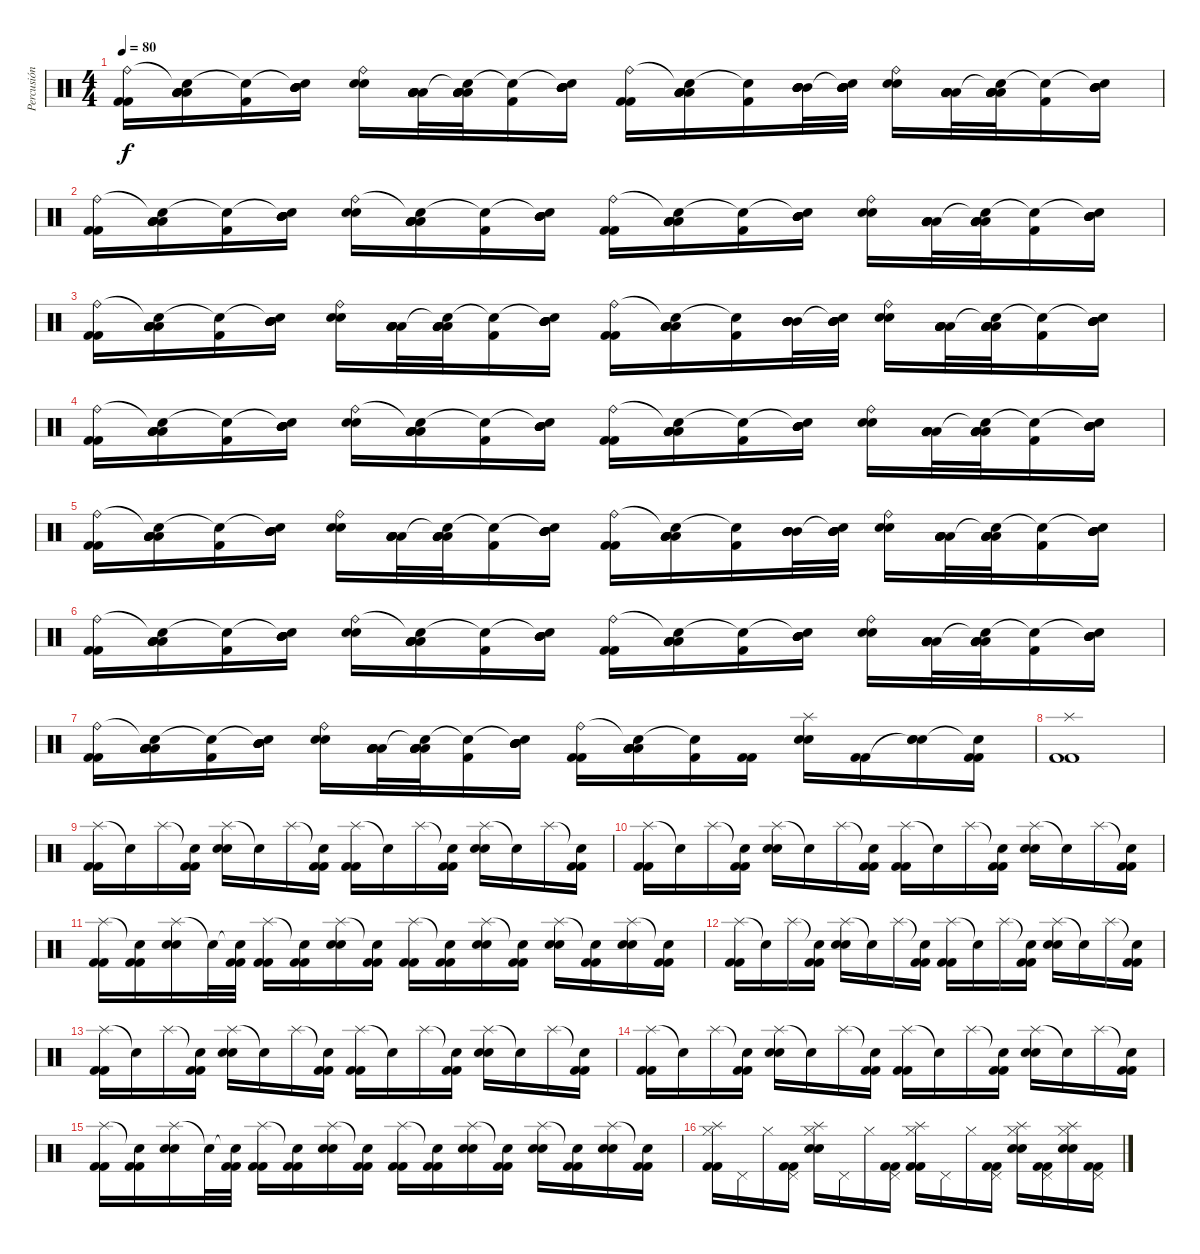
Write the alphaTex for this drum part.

\track ("Percusión" "Percusión") {instrument percussion}
\staff {score}
\articulation defaults
\ts (4 4)
\tempo 80
\clef neutral
\ks c
("Ride (bell)" "Kick (hit) 2" "Kick (hit) 2").16{dy f} ("Snare (hit)"{t} "Low Tom (hit)" "Low Tom (hit)" "Low Tom (hit)" "Low Tom (hit)" "Low Tom (hit)").16 ("Snare (hit)"{t} "Kick (hit) 2").16 ("Snare (hit)"{t} "Mid Tom (hit)" "Mid Tom (hit)" "Mid Tom (hit)" "Mid Tom (hit)" "Mid Tom (hit)").16 ("Ride (bell)" "Electric Snare (hit)" "Electric Snare (hit)").16 ("Low Tom (hit)" "Low Tom (hit)" "Low Tom (hit)" "Low Tom (hit)" "Low Tom (hit)").32 ("Snare (hit)"{t} "Low Tom (hit)" "Low Tom (hit)" "Low Tom (hit)" "Low Tom (hit)" "Low Tom (hit)").32 ("Snare (hit)"{t} "Kick (hit) 2").16 ("Snare (hit)"{t} "Mid Tom (hit)" "Mid Tom (hit)" "Mid Tom (hit)" "Mid Tom (hit)" "Mid Tom (hit)").16 ("Ride (bell)" "Kick (hit) 2" "Kick (hit) 2").16 ("Snare (hit)"{t} "Low Tom (hit)" "Low Tom (hit)" "Low Tom (hit)" "Low Tom (hit)" "Low Tom (hit)").16 ("Snare (hit)"{t} "Kick (hit) 2").16 ("Mid Tom (hit)" "Mid Tom (hit)" "Mid Tom (hit)" "Mid Tom (hit)" "Mid Tom (hit)").32 ("Snare (hit)"{t} "Mid Tom (hit)" "Mid Tom (hit)" "Mid Tom (hit)" "Mid Tom (hit)" "Mid Tom (hit)").32 ("Ride (bell)" "Electric Snare (hit)" "Electric Snare (hit)").16 ("Low Tom (hit)" "Low Tom (hit)" "Low Tom (hit)" "Low Tom (hit)" "Low Tom (hit)").32 ("Snare (hit)"{t} "Low Tom (hit)" "Low Tom (hit)" "Low Tom (hit)" "Low Tom (hit)" "Low Tom (hit)").32 ("Snare (hit)"{t} "Kick (hit) 2").16 ("Snare (hit)"{t} "Mid Tom (hit)" "Mid Tom (hit)" "Mid Tom (hit)" "Mid Tom (hit)" "Mid Tom (hit)").16 |
("Ride (bell)" "Kick (hit) 2" "Kick (hit) 2").16 ("Snare (hit)"{t} "Low Tom (hit)" "Low Tom (hit)" "Low Tom (hit)" "Low Tom (hit)" "Low Tom (hit)").16 ("Snare (hit)"{t} "Kick (hit) 2").16 ("Snare (hit)"{t} "Mid Tom (hit)" "Mid Tom (hit)" "Mid Tom (hit)" "Mid Tom (hit)" "Mid Tom (hit)").16 ("Ride (bell)" "Electric Snare (hit)" "Electric Snare (hit)").16 ("Snare (hit)"{t} "Low Tom (hit)" "Low Tom (hit)" "Low Tom (hit)" "Low Tom (hit)" "Low Tom (hit)").16 ("Snare (hit)"{t} "Kick (hit) 2").16 ("Snare (hit)"{t} "Mid Tom (hit)" "Mid Tom (hit)" "Mid Tom (hit)" "Mid Tom (hit)" "Mid Tom (hit)").16 ("Ride (bell)" "Kick (hit) 2" "Kick (hit) 2").16 ("Snare (hit)"{t} "Low Tom (hit)" "Low Tom (hit)" "Low Tom (hit)" "Low Tom (hit)" "Low Tom (hit)").16 ("Snare (hit)"{t} "Kick (hit) 2").16 ("Snare (hit)"{t} "Mid Tom (hit)" "Mid Tom (hit)" "Mid Tom (hit)" "Mid Tom (hit)" "Mid Tom (hit)").16 ("Ride (bell)" "Electric Snare (hit)" "Electric Snare (hit)").16 ("Low Tom (hit)" "Low Tom (hit)" "Low Tom (hit)" "Low Tom (hit)" "Low Tom (hit)").32 ("Snare (hit)"{t} "Low Tom (hit)" "Low Tom (hit)" "Low Tom (hit)" "Low Tom (hit)" "Low Tom (hit)").32 ("Snare (hit)"{t} "Kick (hit) 2").16 ("Snare (hit)"{t} "Mid Tom (hit)" "Mid Tom (hit)" "Mid Tom (hit)" "Mid Tom (hit)" "Mid Tom (hit)").16 |
("Ride (bell)" "Kick (hit) 2" "Kick (hit) 2").16 ("Snare (hit)"{t} "Low Tom (hit)" "Low Tom (hit)" "Low Tom (hit)" "Low Tom (hit)" "Low Tom (hit)").16 ("Snare (hit)"{t} "Kick (hit) 2").16 ("Snare (hit)"{t} "Mid Tom (hit)" "Mid Tom (hit)" "Mid Tom (hit)" "Mid Tom (hit)" "Mid Tom (hit)").16 ("Ride (bell)" "Electric Snare (hit)" "Electric Snare (hit)").16 ("Low Tom (hit)" "Low Tom (hit)" "Low Tom (hit)" "Low Tom (hit)" "Low Tom (hit)").32 ("Snare (hit)"{t} "Low Tom (hit)" "Low Tom (hit)" "Low Tom (hit)" "Low Tom (hit)" "Low Tom (hit)").32 ("Snare (hit)"{t} "Kick (hit) 2").16 ("Snare (hit)"{t} "Mid Tom (hit)" "Mid Tom (hit)" "Mid Tom (hit)" "Mid Tom (hit)" "Mid Tom (hit)").16 ("Ride (bell)" "Kick (hit) 2" "Kick (hit) 2").16 ("Snare (hit)"{t} "Low Tom (hit)" "Low Tom (hit)" "Low Tom (hit)" "Low Tom (hit)" "Low Tom (hit)").16 ("Snare (hit)"{t} "Kick (hit) 2").16 ("Mid Tom (hit)" "Mid Tom (hit)" "Mid Tom (hit)" "Mid Tom (hit)" "Mid Tom (hit)").32 ("Snare (hit)"{t} "Mid Tom (hit)" "Mid Tom (hit)" "Mid Tom (hit)" "Mid Tom (hit)" "Mid Tom (hit)").32 ("Ride (bell)" "Electric Snare (hit)" "Electric Snare (hit)").16 ("Low Tom (hit)" "Low Tom (hit)" "Low Tom (hit)" "Low Tom (hit)" "Low Tom (hit)").32 ("Snare (hit)"{t} "Low Tom (hit)" "Low Tom (hit)" "Low Tom (hit)" "Low Tom (hit)" "Low Tom (hit)").32 ("Snare (hit)"{t} "Kick (hit) 2").16 ("Snare (hit)"{t} "Mid Tom (hit)" "Mid Tom (hit)" "Mid Tom (hit)" "Mid Tom (hit)" "Mid Tom (hit)").16 |
("Ride (bell)" "Kick (hit) 2" "Kick (hit) 2").16 ("Snare (hit)"{t} "Low Tom (hit)" "Low Tom (hit)" "Low Tom (hit)" "Low Tom (hit)" "Low Tom (hit)").16 ("Snare (hit)"{t} "Kick (hit) 2").16 ("Snare (hit)"{t} "Mid Tom (hit)" "Mid Tom (hit)" "Mid Tom (hit)" "Mid Tom (hit)" "Mid Tom (hit)").16 ("Ride (bell)" "Electric Snare (hit)" "Electric Snare (hit)").16 ("Snare (hit)"{t} "Low Tom (hit)" "Low Tom (hit)" "Low Tom (hit)" "Low Tom (hit)" "Low Tom (hit)").16 ("Snare (hit)"{t} "Kick (hit) 2").16 ("Snare (hit)"{t} "Mid Tom (hit)" "Mid Tom (hit)" "Mid Tom (hit)" "Mid Tom (hit)" "Mid Tom (hit)").16 ("Ride (bell)" "Kick (hit) 2" "Kick (hit) 2").16 ("Snare (hit)"{t} "Low Tom (hit)" "Low Tom (hit)" "Low Tom (hit)" "Low Tom (hit)" "Low Tom (hit)").16 ("Snare (hit)"{t} "Kick (hit) 2").16 ("Snare (hit)"{t} "Mid Tom (hit)" "Mid Tom (hit)" "Mid Tom (hit)" "Mid Tom (hit)" "Mid Tom (hit)").16 ("Ride (bell)" "Electric Snare (hit)" "Electric Snare (hit)").16 ("Low Tom (hit)" "Low Tom (hit)" "Low Tom (hit)" "Low Tom (hit)" "Low Tom (hit)").32 ("Snare (hit)"{t} "Low Tom (hit)" "Low Tom (hit)" "Low Tom (hit)" "Low Tom (hit)" "Low Tom (hit)").32 ("Snare (hit)"{t} "Kick (hit) 2").16 ("Snare (hit)"{t} "Mid Tom (hit)" "Mid Tom (hit)" "Mid Tom (hit)" "Mid Tom (hit)" "Mid Tom (hit)").16 |
("Ride (bell)" "Kick (hit) 2" "Kick (hit) 2").16 ("Snare (hit)"{t} "Low Tom (hit)" "Low Tom (hit)" "Low Tom (hit)" "Low Tom (hit)" "Low Tom (hit)").16 ("Snare (hit)"{t} "Kick (hit) 2").16 ("Snare (hit)"{t} "Mid Tom (hit)" "Mid Tom (hit)" "Mid Tom (hit)" "Mid Tom (hit)" "Mid Tom (hit)").16 ("Ride (bell)" "Electric Snare (hit)" "Electric Snare (hit)").16 ("Low Tom (hit)" "Low Tom (hit)" "Low Tom (hit)" "Low Tom (hit)" "Low Tom (hit)").32 ("Snare (hit)"{t} "Low Tom (hit)" "Low Tom (hit)" "Low Tom (hit)" "Low Tom (hit)" "Low Tom (hit)").32 ("Snare (hit)"{t} "Kick (hit) 2").16 ("Snare (hit)"{t} "Mid Tom (hit)" "Mid Tom (hit)" "Mid Tom (hit)" "Mid Tom (hit)" "Mid Tom (hit)").16 ("Ride (bell)" "Kick (hit) 2" "Kick (hit) 2").16 ("Snare (hit)"{t} "Low Tom (hit)" "Low Tom (hit)" "Low Tom (hit)" "Low Tom (hit)" "Low Tom (hit)").16 ("Snare (hit)"{t} "Kick (hit) 2").16 ("Mid Tom (hit)" "Mid Tom (hit)" "Mid Tom (hit)" "Mid Tom (hit)" "Mid Tom (hit)").32 ("Snare (hit)"{t} "Mid Tom (hit)" "Mid Tom (hit)" "Mid Tom (hit)" "Mid Tom (hit)" "Mid Tom (hit)").32 ("Ride (bell)" "Electric Snare (hit)" "Electric Snare (hit)").16 ("Low Tom (hit)" "Low Tom (hit)" "Low Tom (hit)" "Low Tom (hit)" "Low Tom (hit)").32 ("Snare (hit)"{t} "Low Tom (hit)" "Low Tom (hit)" "Low Tom (hit)" "Low Tom (hit)" "Low Tom (hit)").32 ("Snare (hit)"{t} "Kick (hit) 2").16 ("Snare (hit)"{t} "Mid Tom (hit)" "Mid Tom (hit)" "Mid Tom (hit)" "Mid Tom (hit)" "Mid Tom (hit)").16 |
("Ride (bell)" "Kick (hit) 2" "Kick (hit) 2").16 ("Snare (hit)"{t} "Low Tom (hit)" "Low Tom (hit)" "Low Tom (hit)" "Low Tom (hit)" "Low Tom (hit)").16 ("Snare (hit)"{t} "Kick (hit) 2").16 ("Snare (hit)"{t} "Mid Tom (hit)" "Mid Tom (hit)" "Mid Tom (hit)" "Mid Tom (hit)" "Mid Tom (hit)").16 ("Ride (bell)" "Electric Snare (hit)" "Electric Snare (hit)").16 ("Snare (hit)"{t} "Low Tom (hit)" "Low Tom (hit)" "Low Tom (hit)" "Low Tom (hit)" "Low Tom (hit)").16 ("Snare (hit)"{t} "Kick (hit) 2").16 ("Snare (hit)"{t} "Mid Tom (hit)" "Mid Tom (hit)" "Mid Tom (hit)" "Mid Tom (hit)" "Mid Tom (hit)").16 ("Ride (bell)" "Kick (hit) 2" "Kick (hit) 2").16 ("Snare (hit)"{t} "Low Tom (hit)" "Low Tom (hit)" "Low Tom (hit)" "Low Tom (hit)" "Low Tom (hit)").16 ("Snare (hit)"{t} "Kick (hit) 2").16 ("Snare (hit)"{t} "Mid Tom (hit)" "Mid Tom (hit)" "Mid Tom (hit)" "Mid Tom (hit)" "Mid Tom (hit)").16 ("Ride (bell)" "Electric Snare (hit)" "Electric Snare (hit)").16 ("Low Tom (hit)" "Low Tom (hit)" "Low Tom (hit)" "Low Tom (hit)" "Low Tom (hit)").32 ("Snare (hit)"{t} "Low Tom (hit)" "Low Tom (hit)" "Low Tom (hit)" "Low Tom (hit)" "Low Tom (hit)").32 ("Snare (hit)"{t} "Kick (hit) 2").16 ("Snare (hit)"{t} "Mid Tom (hit)" "Mid Tom (hit)" "Mid Tom (hit)" "Mid Tom (hit)" "Mid Tom (hit)").16 |
("Ride (bell)" "Kick (hit) 2" "Kick (hit) 2").16 ("Snare (hit)"{t} "Low Tom (hit)" "Low Tom (hit)" "Low Tom (hit)" "Low Tom (hit)" "Low Tom (hit)").16 ("Snare (hit)"{t} "Kick (hit) 2").16 ("Snare (hit)"{t} "Mid Tom (hit)" "Mid Tom (hit)" "Mid Tom (hit)" "Mid Tom (hit)" "Mid Tom (hit)").16 ("Ride (bell)" "Electric Snare (hit)" "Electric Snare (hit)").16 ("Low Tom (hit)" "Low Tom (hit)" "Low Tom (hit)" "Low Tom (hit)" "Low Tom (hit)").32 ("Snare (hit)"{t} "Low Tom (hit)" "Low Tom (hit)" "Low Tom (hit)" "Low Tom (hit)" "Low Tom (hit)").32 ("Snare (hit)"{t} "Kick (hit) 2").16 ("Snare (hit)"{t} "Mid Tom (hit)" "Mid Tom (hit)" "Mid Tom (hit)" "Mid Tom (hit)" "Mid Tom (hit)").16 ("Ride (bell)" "Kick (hit) 2" "Kick (hit) 2").16 ("Snare (hit)"{t} "Low Tom (hit)" "Low Tom (hit)" "Low Tom (hit)" "Low Tom (hit)" "Low Tom (hit)").16 ("Snare (hit)"{t} "Kick (hit) 2").16 ("Kick (hit) 2" "Kick (hit) 2").16 ("Splash (hit)" "Electric Snare (hit)" "Electric Snare (hit)").16 ("Kick (hit) 2" "Kick (hit) 2").16 ("Snare (hit)"{t} "Electric Snare (hit)" "Electric Snare (hit)").16 ("Snare (hit)"{t} "Kick (hit) 2" "Kick (hit) 2").16 |
("Splash (hit)" "Kick (hit) 2" "Kick (hit) 2").1 |
("Splash (hit)" "Kick (hit) 2" "Kick (hit) 2").16 "Snare (hit)"{t}.16 "Splash (hit)".16 ("Snare (hit)"{t} "Kick (hit) 2" "Kick (hit) 2").16 ("Splash (hit)" "Electric Snare (hit)" "Electric Snare (hit)").16 "Snare (hit)"{t}.16 "Splash (hit)".16 ("Snare (hit)"{t} "Kick (hit) 2" "Kick (hit) 2").16 ("Splash (hit)" "Kick (hit) 2" "Kick (hit) 2").16 "Snare (hit)"{t}.16 "Splash (hit)".16 ("Snare (hit)"{t} "Kick (hit) 2" "Kick (hit) 2").16 ("Splash (hit)" "Electric Snare (hit)" "Electric Snare (hit)").16 "Snare (hit)"{t}.16 "Splash (hit)".16 ("Snare (hit)"{t} "Kick (hit) 2" "Kick (hit) 2").16 |
("Splash (hit)" "Kick (hit) 2" "Kick (hit) 2").16 "Snare (hit)"{t}.16 "Splash (hit)".16 ("Snare (hit)"{t} "Kick (hit) 2" "Kick (hit) 2").16 ("Splash (hit)" "Electric Snare (hit)" "Electric Snare (hit)").16 "Snare (hit)"{t}.16 "Splash (hit)".16 ("Snare (hit)"{t} "Kick (hit) 2" "Kick (hit) 2").16 ("Splash (hit)" "Kick (hit) 2" "Kick (hit) 2").16 "Snare (hit)"{t}.16 "Splash (hit)".16 ("Snare (hit)"{t} "Kick (hit) 2" "Kick (hit) 2").16 ("Splash (hit)" "Electric Snare (hit)" "Electric Snare (hit)").16 "Snare (hit)"{t}.16 "Splash (hit)".16 ("Snare (hit)"{t} "Kick (hit) 2" "Kick (hit) 2").16 |
("Splash (hit)" "Kick (hit) 2" "Kick (hit) 2").16 ("Snare (hit)"{t} "Kick (hit) 2" "Kick (hit) 2").16 ("Splash (hit)" "Electric Snare (hit)" "Electric Snare (hit)").16 "Snare (hit)"{t}.32 ("Snare (hit)"{t} "Kick (hit) 2" "Kick (hit) 2").32 ("Splash (hit)" "Kick (hit) 2" "Kick (hit) 2").16 ("Snare (hit)"{t} "Kick (hit) 2" "Kick (hit) 2").16 ("Splash (hit)" "Electric Snare (hit)" "Electric Snare (hit)").16 ("Snare (hit)"{t} "Kick (hit) 2" "Kick (hit) 2").16 ("Splash (hit)" "Kick (hit) 2" "Kick (hit) 2").16 ("Snare (hit)"{t} "Kick (hit) 2" "Kick (hit) 2").16 ("Splash (hit)" "Electric Snare (hit)" "Electric Snare (hit)").16 ("Snare (hit)"{t} "Kick (hit) 2" "Kick (hit) 2").16 ("Splash (hit)" "Electric Snare (hit)" "Electric Snare (hit)").16 ("Snare (hit)"{t} "Kick (hit) 2" "Kick (hit) 2").16 ("Splash (hit)" "Electric Snare (hit)" "Electric Snare (hit)").16 ("Snare (hit)"{t} "Kick (hit) 2" "Kick (hit) 2").16 |
("Splash (hit)" "Kick (hit) 2" "Kick (hit) 2").16 "Snare (hit)"{t}.16 "Splash (hit)".16 ("Snare (hit)"{t} "Kick (hit) 2" "Kick (hit) 2").16 ("Splash (hit)" "Electric Snare (hit)" "Electric Snare (hit)").16 "Snare (hit)"{t}.16 "Splash (hit)".16 ("Snare (hit)"{t} "Kick (hit) 2" "Kick (hit) 2").16 ("Splash (hit)" "Kick (hit) 2" "Kick (hit) 2").16 "Snare (hit)"{t}.16 "Splash (hit)".16 ("Snare (hit)"{t} "Kick (hit) 2" "Kick (hit) 2").16 ("Splash (hit)" "Electric Snare (hit)" "Electric Snare (hit)").16 "Snare (hit)"{t}.16 "Splash (hit)".16 ("Snare (hit)"{t} "Kick (hit) 2" "Kick (hit) 2").16 |
("Splash (hit)" "Kick (hit) 2" "Kick (hit) 2").16 "Snare (hit)"{t}.16 "Splash (hit)".16 ("Snare (hit)"{t} "Kick (hit) 2" "Kick (hit) 2").16 ("Splash (hit)" "Electric Snare (hit)" "Electric Snare (hit)").16 "Snare (hit)"{t}.16 "Splash (hit)".16 ("Snare (hit)"{t} "Kick (hit) 2" "Kick (hit) 2").16 ("Splash (hit)" "Kick (hit) 2" "Kick (hit) 2").16 "Snare (hit)"{t}.16 "Splash (hit)".16 ("Snare (hit)"{t} "Kick (hit) 2" "Kick (hit) 2").16 ("Splash (hit)" "Electric Snare (hit)" "Electric Snare (hit)").16 "Snare (hit)"{t}.16 "Splash (hit)".16 ("Snare (hit)"{t} "Kick (hit) 2" "Kick (hit) 2").16 |
("Splash (hit)" "Kick (hit) 2" "Kick (hit) 2").16 "Snare (hit)"{t}.16 "Splash (hit)".16 ("Snare (hit)"{t} "Kick (hit) 2" "Kick (hit) 2").16 ("Splash (hit)" "Electric Snare (hit)" "Electric Snare (hit)").16 "Snare (hit)"{t}.16 "Splash (hit)".16 ("Snare (hit)"{t} "Kick (hit) 2" "Kick (hit) 2").16 ("Splash (hit)" "Kick (hit) 2" "Kick (hit) 2").16 "Snare (hit)"{t}.16 "Splash (hit)".16 ("Snare (hit)"{t} "Kick (hit) 2" "Kick (hit) 2").16 ("Splash (hit)" "Electric Snare (hit)" "Electric Snare (hit)").16 "Snare (hit)"{t}.16 "Splash (hit)".16 ("Snare (hit)"{t} "Kick (hit) 2" "Kick (hit) 2").16 |
("Splash (hit)" "Kick (hit) 2" "Kick (hit) 2").16 ("Snare (hit)"{t} "Kick (hit) 2" "Kick (hit) 2").16 ("Splash (hit)" "Electric Snare (hit)" "Electric Snare (hit)").16 "Snare (hit)"{t}.32 ("Snare (hit)"{t} "Kick (hit) 2" "Kick (hit) 2").32 ("Splash (hit)" "Kick (hit) 2" "Kick (hit) 2").16 ("Snare (hit)"{t} "Kick (hit) 2" "Kick (hit) 2").16 ("Splash (hit)" "Electric Snare (hit)" "Electric Snare (hit)").16 ("Snare (hit)"{t} "Kick (hit) 2" "Kick (hit) 2").16 ("Splash (hit)" "Kick (hit) 2" "Kick (hit) 2").16 ("Snare (hit)"{t} "Kick (hit) 2" "Kick (hit) 2").16 ("Splash (hit)" "Electric Snare (hit)" "Electric Snare (hit)").16 ("Snare (hit)"{t} "Kick (hit) 2" "Kick (hit) 2").16 ("Splash (hit)" "Electric Snare (hit)" "Electric Snare (hit)").16 ("Snare (hit)"{t} "Kick (hit) 2" "Kick (hit) 2").16 ("Splash (hit)" "Electric Snare (hit)" "Electric Snare (hit)").16 ("Snare (hit)"{t} "Kick (hit) 2" "Kick (hit) 2").16 |
("Hi-Hat (closed)" "Splash (hit)" "Kick (hit) 2" "Kick (hit) 2").16 "Pedal Hi-Hat (hit)".16 "Hi-Hat (closed)".16 ("Pedal Hi-Hat (hit)" "Kick (hit) 2" "Kick (hit) 2").16 ("Hi-Hat (closed)" "Splash (hit)" "Electric Snare (hit)" "Electric Snare (hit)").16 "Pedal Hi-Hat (hit)".16 "Hi-Hat (closed)".16 ("Pedal Hi-Hat (hit)" "Kick (hit) 2" "Kick (hit) 2").16 ("Hi-Hat (closed)" "Splash (hit)" "Kick (hit) 2" "Kick (hit) 2").16 "Pedal Hi-Hat (hit)".16 "Hi-Hat (closed)".16 ("Pedal Hi-Hat (hit)" "Kick (hit) 2" "Kick (hit) 2").16 ("Hi-Hat (closed)" "Splash (hit)" "Electric Snare (hit)" "Electric Snare (hit)").16 ("Pedal Hi-Hat (hit)" "Kick (hit) 2" "Kick (hit) 2").16 ("Hi-Hat (closed)" "Splash (hit)" "Electric Snare (hit)" "Electric Snare (hit)").16 ("Pedal Hi-Hat (hit)" "Kick (hit) 2" "Kick (hit) 2").16
